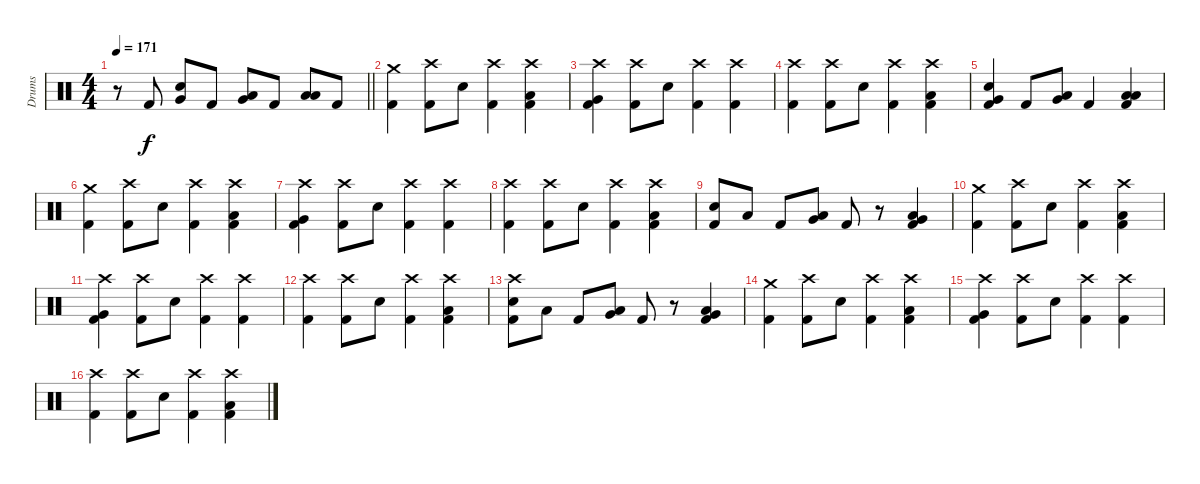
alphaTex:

\track ("Drums" "Drums") {instrument percussion}
\staff {score}
\articulation defaults
\ts (4 4)
\tempo 171
\clef neutral
\barLineRight lightlight
\ks c
r.8{dy f} "Kick (hit) 2".8 ("Electric Snare (hit)" "Very Low Tom (hit)").8 "Kick (hit) 2".8 ("Low Tom (hit)" "Very Low Tom (hit)").8 "Kick (hit) 2".8 ("Low Tom (hit)" "Low Floor Tom (hit)").8 "Kick (hit) 2".8 |
("Crash medium (hit)" "Kick (hit) 2").4 ("Crash high (hit)" "Kick (hit) 2").8 "Electric Snare (hit)".8 ("Crash high (hit)" "Kick (hit) 2").4 ("Crash high (hit)" "Low Tom (hit)" "Kick (hit) 2").4 |
("Crash high (hit)" "Very Low Tom (hit)" "Kick (hit) 2").4 ("Crash high (hit)" "Kick (hit) 2").8 "Electric Snare (hit)".8 ("Crash high (hit)" "Kick (hit) 2").4 ("Crash high (hit)" "Kick (hit) 2").4 |
("Crash high (hit)" "Kick (hit) 2").4 ("Crash high (hit)" "Kick (hit) 2").8 "Electric Snare (hit)".8 ("Crash high (hit)" "Kick (hit) 2").4 ("Crash high (hit)" "Low Tom (hit)" "Kick (hit) 2").4 |
("Electric Snare (hit)" "Very Low Tom (hit)" "Kick (hit) 2").4 "Kick (hit) 2".8 ("Low Tom (hit)" "Very Low Tom (hit)").8 "Kick (hit) 2".4 ("Low Tom (hit)" "Low Floor Tom (hit)" "Kick (hit) 2").4 |
("Crash medium (hit)" "Kick (hit) 2").4 ("Crash high (hit)" "Kick (hit) 2").8 "Electric Snare (hit)".8 ("Crash high (hit)" "Kick (hit) 2").4 ("Crash high (hit)" "Low Tom (hit)" "Kick (hit) 2").4 |
("Crash high (hit)" "Very Low Tom (hit)" "Kick (hit) 2").4 ("Crash high (hit)" "Kick (hit) 2").8 "Electric Snare (hit)".8 ("Crash high (hit)" "Kick (hit) 2").4 ("Crash high (hit)" "Kick (hit) 2").4 |
("Crash high (hit)" "Kick (hit) 2").4 ("Crash high (hit)" "Kick (hit) 2").8 "Electric Snare (hit)".8 ("Crash high (hit)" "Kick (hit) 2").4 ("Crash high (hit)" "Low Tom (hit)" "Kick (hit) 2").4 |
("Electric Snare (hit)" "Kick (hit) 2").8 "Low Tom (hit)".8 "Kick (hit) 2".8 ("Low Tom (hit)" "Very Low Tom (hit)").8 "Kick (hit) 2".8 r.8 ("Very Low Tom (hit)" "Low Floor Tom (hit)" "Kick (hit) 2").4 |
("Crash medium (hit)" "Kick (hit) 2").4 ("Crash high (hit)" "Kick (hit) 2").8 "Electric Snare (hit)".8 ("Crash high (hit)" "Kick (hit) 2").4 ("Crash high (hit)" "Low Tom (hit)" "Kick (hit) 2").4 |
("Crash high (hit)" "Very Low Tom (hit)" "Kick (hit) 2").4 ("Crash high (hit)" "Kick (hit) 2").8 "Electric Snare (hit)".8 ("Crash high (hit)" "Kick (hit) 2").4 ("Crash high (hit)" "Kick (hit) 2").4 |
("Crash high (hit)" "Kick (hit) 2").4 ("Crash high (hit)" "Kick (hit) 2").8 "Electric Snare (hit)".8 ("Crash high (hit)" "Kick (hit) 2").4 ("Crash high (hit)" "Low Tom (hit)" "Kick (hit) 2").4 |
("Crash high (hit)" "Electric Snare (hit)" "Kick (hit) 2").8 "Low Tom (hit)".8 "Kick (hit) 2".8 ("Low Tom (hit)" "Very Low Tom (hit)").8 "Kick (hit) 2".8 r.8 ("Very Low Tom (hit)" "Low Floor Tom (hit)" "Kick (hit) 2").4 |
("Crash medium (hit)" "Kick (hit) 2").4 ("Crash high (hit)" "Kick (hit) 2").8 "Electric Snare (hit)".8 ("Crash high (hit)" "Kick (hit) 2").4 ("Crash high (hit)" "Low Tom (hit)" "Kick (hit) 2").4 |
("Crash high (hit)" "Very Low Tom (hit)" "Kick (hit) 2").4 ("Crash high (hit)" "Kick (hit) 2").8 "Electric Snare (hit)".8 ("Crash high (hit)" "Kick (hit) 2").4 ("Crash high (hit)" "Kick (hit) 2").4 |
("Crash high (hit)" "Kick (hit) 2").4 ("Crash high (hit)" "Kick (hit) 2").8 "Electric Snare (hit)".8 ("Crash high (hit)" "Kick (hit) 2").4 ("Crash high (hit)" "Low Tom (hit)" "Kick (hit) 2").4
